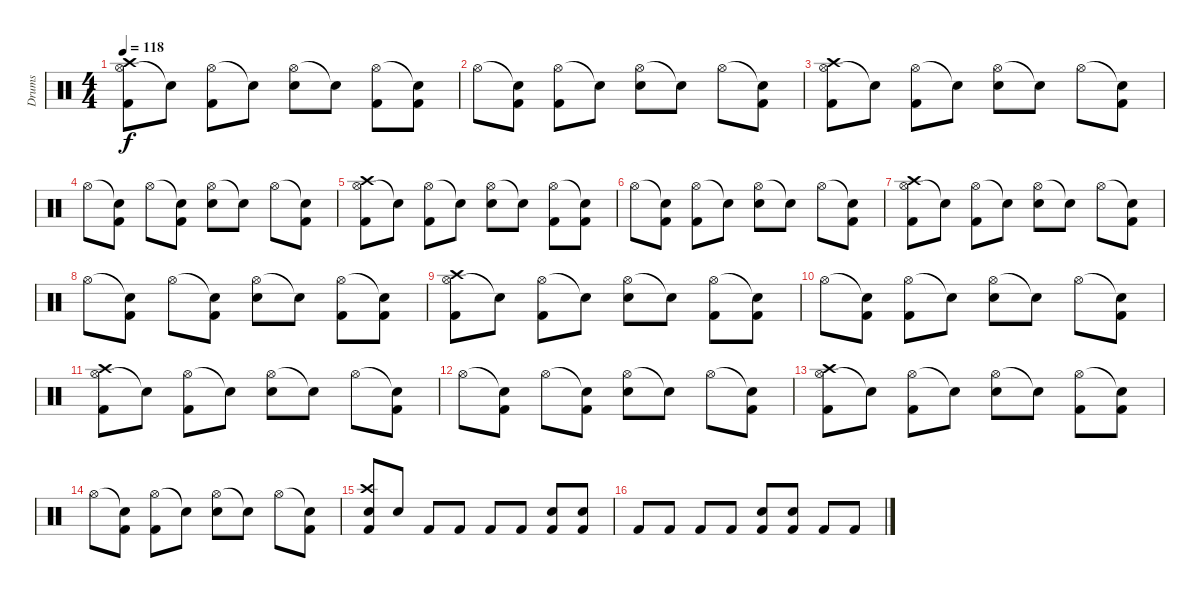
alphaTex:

\track ("Drums" "Drums") {instrument percussion}
\staff {score}
\articulation defaults
\ts (4 4)
\tempo 118
\clef neutral
\ks c
("Hi-Hat (open)" "Kick (hit) 2" "Crash high (hit)").8{dy f} "Snare (hit)"{t}.8 ("Hi-Hat (open)" "Kick (hit) 2").8 "Snare (hit)"{t}.8 ("Hi-Hat (open)" "Electric Snare (hit)").8 "Snare (hit)"{t}.8 ("Hi-Hat (open)" "Kick (hit) 2").8 ("Snare (hit)"{t} "Kick (hit) 2").8 |
"Hi-Hat (open)".8 ("Snare (hit)"{t} "Kick (hit) 2").8 ("Hi-Hat (open)" "Kick (hit) 2").8 "Snare (hit)"{t}.8 ("Hi-Hat (open)" "Electric Snare (hit)").8 "Snare (hit)"{t}.8 "Hi-Hat (open)".8 ("Snare (hit)"{t} "Kick (hit) 2").8 |
("Hi-Hat (open)" "Kick (hit) 2" "Crash high (hit)").8 "Snare (hit)"{t}.8 ("Hi-Hat (open)" "Kick (hit) 2").8 "Snare (hit)"{t}.8 ("Hi-Hat (open)" "Electric Snare (hit)").8 "Snare (hit)"{t}.8 "Hi-Hat (open)".8 ("Snare (hit)"{t} "Kick (hit) 2").8 |
"Hi-Hat (open)".8 ("Snare (hit)"{t} "Kick (hit) 2").8 "Hi-Hat (open)".8 ("Snare (hit)"{t} "Kick (hit) 2").8 ("Hi-Hat (open)" "Electric Snare (hit)").8 "Snare (hit)"{t}.8 "Hi-Hat (open)".8 ("Snare (hit)"{t} "Kick (hit) 2").8 |
("Hi-Hat (open)" "Kick (hit) 2" "Crash high (hit)").8 "Snare (hit)"{t}.8 ("Hi-Hat (open)" "Kick (hit) 2").8 "Snare (hit)"{t}.8 ("Hi-Hat (open)" "Electric Snare (hit)").8 "Snare (hit)"{t}.8 ("Hi-Hat (open)" "Kick (hit) 2").8 ("Snare (hit)"{t} "Kick (hit) 2").8 |
"Hi-Hat (open)".8 ("Snare (hit)"{t} "Kick (hit) 2").8 ("Hi-Hat (open)" "Kick (hit) 2").8 "Snare (hit)"{t}.8 ("Hi-Hat (open)" "Electric Snare (hit)").8 "Snare (hit)"{t}.8 "Hi-Hat (open)".8 ("Snare (hit)"{t} "Kick (hit) 2").8 |
("Hi-Hat (open)" "Kick (hit) 2" "Crash high (hit)").8 "Snare (hit)"{t}.8 ("Hi-Hat (open)" "Kick (hit) 2").8 "Snare (hit)"{t}.8 ("Hi-Hat (open)" "Electric Snare (hit)").8 "Snare (hit)"{t}.8 "Hi-Hat (open)".8 ("Snare (hit)"{t} "Kick (hit) 2").8 |
"Hi-Hat (open)".8 ("Snare (hit)"{t} "Kick (hit) 2").8 "Hi-Hat (open)".8 ("Snare (hit)"{t} "Kick (hit) 2").8 ("Hi-Hat (open)" "Electric Snare (hit)").8 "Snare (hit)"{t}.8 ("Hi-Hat (open)" "Kick (hit) 2").8 ("Snare (hit)"{t} "Kick (hit) 2").8 |
("Hi-Hat (open)" "Kick (hit) 2" "Crash high (hit)").8 "Snare (hit)"{t}.8 ("Hi-Hat (open)" "Kick (hit) 2").8 "Snare (hit)"{t}.8 ("Hi-Hat (open)" "Electric Snare (hit)").8 "Snare (hit)"{t}.8 ("Hi-Hat (open)" "Kick (hit) 2").8 ("Snare (hit)"{t} "Kick (hit) 2").8 |
"Hi-Hat (open)".8 ("Snare (hit)"{t} "Kick (hit) 2").8 ("Hi-Hat (open)" "Kick (hit) 2").8 "Snare (hit)"{t}.8 ("Hi-Hat (open)" "Electric Snare (hit)").8 "Snare (hit)"{t}.8 "Hi-Hat (open)".8 ("Snare (hit)"{t} "Kick (hit) 2").8 |
("Hi-Hat (open)" "Kick (hit) 2" "Crash high (hit)").8 "Snare (hit)"{t}.8 ("Hi-Hat (open)" "Kick (hit) 2").8 "Snare (hit)"{t}.8 ("Hi-Hat (open)" "Electric Snare (hit)").8 "Snare (hit)"{t}.8 "Hi-Hat (open)".8 ("Snare (hit)"{t} "Kick (hit) 2").8 |
"Hi-Hat (open)".8 ("Snare (hit)"{t} "Kick (hit) 2").8 "Hi-Hat (open)".8 ("Snare (hit)"{t} "Kick (hit) 2").8 ("Hi-Hat (open)" "Electric Snare (hit)").8 "Snare (hit)"{t}.8 "Hi-Hat (open)".8 ("Snare (hit)"{t} "Kick (hit) 2").8 |
("Hi-Hat (open)" "Kick (hit) 2" "Crash high (hit)").8 "Snare (hit)"{t}.8 ("Hi-Hat (open)" "Kick (hit) 2").8 "Snare (hit)"{t}.8 ("Hi-Hat (open)" "Electric Snare (hit)").8 "Snare (hit)"{t}.8 ("Hi-Hat (open)" "Kick (hit) 2").8 ("Snare (hit)"{t} "Kick (hit) 2").8 |
"Hi-Hat (open)".8 ("Snare (hit)"{t} "Kick (hit) 2").8 ("Hi-Hat (open)" "Kick (hit) 2").8 "Snare (hit)"{t}.8 ("Hi-Hat (open)" "Electric Snare (hit)").8 "Snare (hit)"{t}.8 "Hi-Hat (open)".8 ("Snare (hit)"{t} "Kick (hit) 2").8 |
("Kick (hit) 2" "Electric Snare (hit)" "Crash high (hit)").8 "Electric Snare (hit)".8 "Kick (hit) 2".8 "Kick (hit) 2".8 "Kick (hit) 2".8 "Kick (hit) 2".8 ("Kick (hit) 2" "Electric Snare (hit)").8 ("Kick (hit) 2" "Electric Snare (hit)").8 |
"Kick (hit) 2".8 "Kick (hit) 2".8 "Kick (hit) 2".8 "Kick (hit) 2".8 ("Kick (hit) 2" "Electric Snare (hit)").8 ("Kick (hit) 2" "Electric Snare (hit)").8 "Kick (hit) 2".8 "Kick (hit) 2".8
